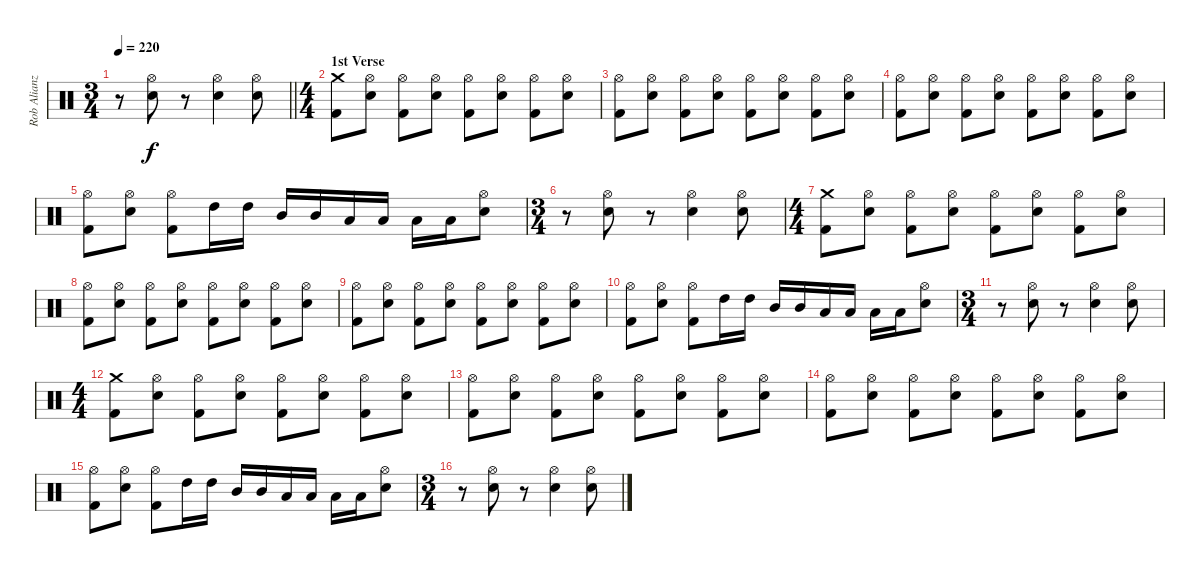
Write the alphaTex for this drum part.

\track ("Rob Alianz" "Rob Alianz") {instrument percussion}
\staff {score}
\articulation defaults
\ts (3 4)
\tempo 220
\clef neutral
\barLineRight lightlight
\ks c
r.8{dy f} ("Hi-Hat (open)" "Electric Snare (hit)").8 r.8 ("Hi-Hat (open)" "Electric Snare (hit)").4 ("Hi-Hat (open)" "Electric Snare (hit)").8 |
\ts (4 4)
\section ("" "1st Verse")
("Crash medium (hit)" "Kick (hit) 2").8 ("Hi-Hat (open)" "Electric Snare (hit)").8 ("Hi-Hat (open)" "Kick (hit) 2").8 ("Hi-Hat (open)" "Electric Snare (hit)").8 ("Hi-Hat (open)" "Kick (hit) 2").8 ("Hi-Hat (open)" "Electric Snare (hit)").8 ("Hi-Hat (open)" "Kick (hit) 2").8 ("Hi-Hat (open)" "Electric Snare (hit)").8 |
("Hi-Hat (open)" "Kick (hit) 2").8 ("Hi-Hat (open)" "Electric Snare (hit)").8 ("Hi-Hat (open)" "Kick (hit) 2").8 ("Hi-Hat (open)" "Electric Snare (hit)").8 ("Hi-Hat (open)" "Kick (hit) 2").8 ("Hi-Hat (open)" "Electric Snare (hit)").8 ("Hi-Hat (open)" "Kick (hit) 2").8 ("Hi-Hat (open)" "Electric Snare (hit)").8 |
("Hi-Hat (open)" "Kick (hit) 2").8 ("Hi-Hat (open)" "Electric Snare (hit)").8 ("Hi-Hat (open)" "Kick (hit) 2").8 ("Hi-Hat (open)" "Electric Snare (hit)").8 ("Hi-Hat (open)" "Kick (hit) 2").8 ("Hi-Hat (open)" "Electric Snare (hit)").8 ("Hi-Hat (open)" "Kick (hit) 2").8 ("Hi-Hat (open)" "Electric Snare (hit)").8 |
("Hi-Hat (open)" "Kick (hit) 2").8 ("Hi-Hat (open)" "Electric Snare (hit)").8 ("Hi-Hat (open)" "Kick (hit) 2").8 "High Tom (hit)".16 "High Tom (hit)".16 "Mid Tom (hit)".16 "Mid Tom (hit)".16 "Low Tom (hit)".16 "Low Tom (hit)".16 "Low Tom (hit)".16 "Low Tom (hit)".16 ("Hi-Hat (open)" "Electric Snare (hit)").8 |
\ts (3 4)
r.8 ("Hi-Hat (open)" "Electric Snare (hit)").8 r.8 ("Hi-Hat (open)" "Electric Snare (hit)").4 ("Hi-Hat (open)" "Electric Snare (hit)").8 |
\ts (4 4)
("Crash medium (hit)" "Kick (hit) 2").8 ("Hi-Hat (open)" "Electric Snare (hit)").8 ("Hi-Hat (open)" "Kick (hit) 2").8 ("Hi-Hat (open)" "Electric Snare (hit)").8 ("Hi-Hat (open)" "Kick (hit) 2").8 ("Hi-Hat (open)" "Electric Snare (hit)").8 ("Hi-Hat (open)" "Kick (hit) 2").8 ("Hi-Hat (open)" "Electric Snare (hit)").8 |
("Hi-Hat (open)" "Kick (hit) 2").8 ("Hi-Hat (open)" "Electric Snare (hit)").8 ("Hi-Hat (open)" "Kick (hit) 2").8 ("Hi-Hat (open)" "Electric Snare (hit)").8 ("Hi-Hat (open)" "Kick (hit) 2").8 ("Hi-Hat (open)" "Electric Snare (hit)").8 ("Hi-Hat (open)" "Kick (hit) 2").8 ("Hi-Hat (open)" "Electric Snare (hit)").8 |
("Hi-Hat (open)" "Kick (hit) 2").8 ("Hi-Hat (open)" "Electric Snare (hit)").8 ("Hi-Hat (open)" "Kick (hit) 2").8 ("Hi-Hat (open)" "Electric Snare (hit)").8 ("Hi-Hat (open)" "Kick (hit) 2").8 ("Hi-Hat (open)" "Electric Snare (hit)").8 ("Hi-Hat (open)" "Kick (hit) 2").8 ("Hi-Hat (open)" "Electric Snare (hit)").8 |
("Hi-Hat (open)" "Kick (hit) 2").8 ("Hi-Hat (open)" "Electric Snare (hit)").8 ("Hi-Hat (open)" "Kick (hit) 2").8 "High Tom (hit)".16 "High Tom (hit)".16 "Mid Tom (hit)".16 "Mid Tom (hit)".16 "Low Tom (hit)".16 "Low Tom (hit)".16 "Low Tom (hit)".16 "Low Tom (hit)".16 ("Hi-Hat (open)" "Electric Snare (hit)").8 |
\ts (3 4)
r.8 ("Hi-Hat (open)" "Electric Snare (hit)").8 r.8 ("Hi-Hat (open)" "Electric Snare (hit)").4 ("Hi-Hat (open)" "Electric Snare (hit)").8 |
\ts (4 4)
("Crash medium (hit)" "Kick (hit) 2").8 ("Hi-Hat (open)" "Electric Snare (hit)").8 ("Hi-Hat (open)" "Kick (hit) 2").8 ("Hi-Hat (open)" "Electric Snare (hit)").8 ("Hi-Hat (open)" "Kick (hit) 2").8 ("Hi-Hat (open)" "Electric Snare (hit)").8 ("Hi-Hat (open)" "Kick (hit) 2").8 ("Hi-Hat (open)" "Electric Snare (hit)").8 |
("Hi-Hat (open)" "Kick (hit) 2").8 ("Hi-Hat (open)" "Electric Snare (hit)").8 ("Hi-Hat (open)" "Kick (hit) 2").8 ("Hi-Hat (open)" "Electric Snare (hit)").8 ("Hi-Hat (open)" "Kick (hit) 2").8 ("Hi-Hat (open)" "Electric Snare (hit)").8 ("Hi-Hat (open)" "Kick (hit) 2").8 ("Hi-Hat (open)" "Electric Snare (hit)").8 |
("Hi-Hat (open)" "Kick (hit) 2").8 ("Hi-Hat (open)" "Electric Snare (hit)").8 ("Hi-Hat (open)" "Kick (hit) 2").8 ("Hi-Hat (open)" "Electric Snare (hit)").8 ("Hi-Hat (open)" "Kick (hit) 2").8 ("Hi-Hat (open)" "Electric Snare (hit)").8 ("Hi-Hat (open)" "Kick (hit) 2").8 ("Hi-Hat (open)" "Electric Snare (hit)").8 |
("Hi-Hat (open)" "Kick (hit) 2").8 ("Hi-Hat (open)" "Electric Snare (hit)").8 ("Hi-Hat (open)" "Kick (hit) 2").8 "High Tom (hit)".16 "High Tom (hit)".16 "Mid Tom (hit)".16 "Mid Tom (hit)".16 "Low Tom (hit)".16 "Low Tom (hit)".16 "Low Tom (hit)".16 "Low Tom (hit)".16 ("Hi-Hat (open)" "Electric Snare (hit)").8 |
\ts (3 4)
r.8 ("Hi-Hat (open)" "Electric Snare (hit)").8 r.8 ("Hi-Hat (open)" "Electric Snare (hit)").4 ("Hi-Hat (open)" "Electric Snare (hit)").8
